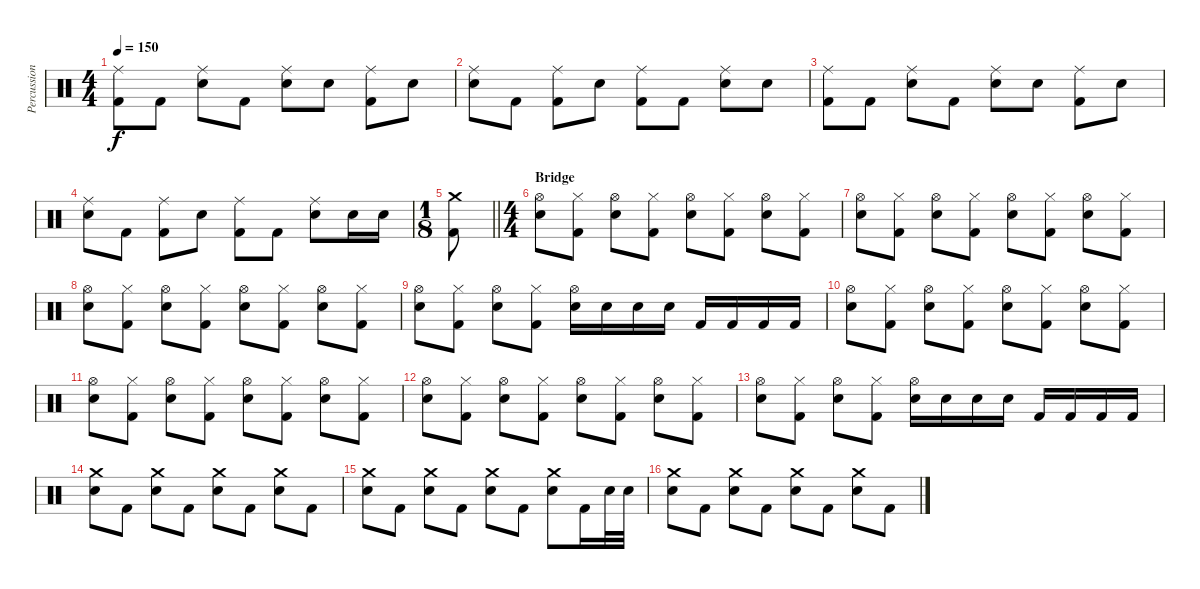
\track ("Percussion" "Percussion") {instrument percussion}
\staff {score}
\articulation defaults
\ts (4 4)
\tempo 150
\clef neutral
\ks c
("Ride (middle)" "Kick (hit) 2").8{dy f} "Kick (hit) 2".8 ("Ride (middle)" "Electric Snare (hit)").8 "Kick (hit) 2".8 ("Ride (middle)" "Electric Snare (hit)").8 "Electric Snare (hit)".8 ("Ride (middle)" "Kick (hit) 2").8 "Electric Snare (hit)".8 |
("Ride (middle)" "Electric Snare (hit)").8 "Kick (hit) 2".8 ("Ride (middle)" "Kick (hit) 2").8 "Electric Snare (hit)".8 ("Ride (middle)" "Kick (hit) 2").8 "Kick (hit) 2".8 ("Ride (middle)" "Electric Snare (hit)").8 "Electric Snare (hit)".8 |
("Ride (middle)" "Kick (hit) 2").8 "Kick (hit) 2".8 ("Ride (middle)" "Electric Snare (hit)").8 "Kick (hit) 2".8 ("Ride (middle)" "Electric Snare (hit)").8 "Electric Snare (hit)".8 ("Ride (middle)" "Kick (hit) 2").8 "Electric Snare (hit)".8 |
("Ride (middle)" "Electric Snare (hit)").8 "Kick (hit) 2".8 ("Ride (middle)" "Kick (hit) 2").8 "Electric Snare (hit)".8 ("Ride (middle)" "Kick (hit) 2").8 "Kick (hit) 2".8 ("Ride (middle)" "Electric Snare (hit)").8 "Electric Snare (hit)".16 "Electric Snare (hit)".16 |
\ts (1 8)
\barLineRight lightlight
("Crash medium (hit)" "Kick (hit) 2").8 |
\ts (4 4)
\section ("" "Bridge")
("Hi-Hat (open)" "Electric Snare (hit)").8 ("Hi-Hat (closed)" "Kick (hit) 2").8 ("Hi-Hat (open)" "Electric Snare (hit)").8 ("Hi-Hat (closed)" "Kick (hit) 2").8 ("Hi-Hat (open)" "Electric Snare (hit)").8 ("Hi-Hat (closed)" "Kick (hit) 2").8 ("Hi-Hat (open)" "Electric Snare (hit)").8 ("Hi-Hat (closed)" "Kick (hit) 2").8 |
("Hi-Hat (open)" "Electric Snare (hit)").8 ("Hi-Hat (closed)" "Kick (hit) 2").8 ("Hi-Hat (open)" "Electric Snare (hit)").8 ("Hi-Hat (closed)" "Kick (hit) 2").8 ("Hi-Hat (open)" "Electric Snare (hit)").8 ("Hi-Hat (closed)" "Kick (hit) 2").8 ("Hi-Hat (open)" "Electric Snare (hit)").8 ("Hi-Hat (closed)" "Kick (hit) 2").8 |
("Hi-Hat (open)" "Electric Snare (hit)").8 ("Hi-Hat (closed)" "Kick (hit) 2").8 ("Hi-Hat (open)" "Electric Snare (hit)").8 ("Hi-Hat (closed)" "Kick (hit) 2").8 ("Hi-Hat (open)" "Electric Snare (hit)").8 ("Hi-Hat (closed)" "Kick (hit) 2").8 ("Hi-Hat (open)" "Electric Snare (hit)").8 ("Hi-Hat (closed)" "Kick (hit) 2").8 |
("Hi-Hat (open)" "Electric Snare (hit)").8 ("Hi-Hat (closed)" "Kick (hit) 2").8 ("Hi-Hat (open)" "Electric Snare (hit)").8 ("Hi-Hat (closed)" "Kick (hit) 2").8 ("Hi-Hat (open)" "Electric Snare (hit)").16 "Electric Snare (hit)".16 "Electric Snare (hit)".16 "Electric Snare (hit)".16 "Kick (hit) 2".16 "Kick (hit) 2".16 "Kick (hit) 2".16 "Kick (hit) 2".16 |
("Hi-Hat (open)" "Electric Snare (hit)").8 ("Hi-Hat (closed)" "Kick (hit) 2").8 ("Hi-Hat (open)" "Electric Snare (hit)").8 ("Hi-Hat (closed)" "Kick (hit) 2").8 ("Hi-Hat (open)" "Electric Snare (hit)").8 ("Hi-Hat (closed)" "Kick (hit) 2").8 ("Hi-Hat (open)" "Electric Snare (hit)").8 ("Hi-Hat (closed)" "Kick (hit) 2").8 |
("Hi-Hat (open)" "Electric Snare (hit)").8 ("Hi-Hat (closed)" "Kick (hit) 2").8 ("Hi-Hat (open)" "Electric Snare (hit)").8 ("Hi-Hat (closed)" "Kick (hit) 2").8 ("Hi-Hat (open)" "Electric Snare (hit)").8 ("Hi-Hat (closed)" "Kick (hit) 2").8 ("Hi-Hat (open)" "Electric Snare (hit)").8 ("Hi-Hat (closed)" "Kick (hit) 2").8 |
("Hi-Hat (open)" "Electric Snare (hit)").8 ("Hi-Hat (closed)" "Kick (hit) 2").8 ("Hi-Hat (open)" "Electric Snare (hit)").8 ("Hi-Hat (closed)" "Kick (hit) 2").8 ("Hi-Hat (open)" "Electric Snare (hit)").8 ("Hi-Hat (closed)" "Kick (hit) 2").8 ("Hi-Hat (open)" "Electric Snare (hit)").8 ("Hi-Hat (closed)" "Kick (hit) 2").8 |
("Hi-Hat (open)" "Electric Snare (hit)").8 ("Hi-Hat (closed)" "Kick (hit) 2").8 ("Hi-Hat (open)" "Electric Snare (hit)").8 ("Hi-Hat (closed)" "Kick (hit) 2").8 ("Hi-Hat (open)" "Electric Snare (hit)").16 "Electric Snare (hit)".16 "Electric Snare (hit)".16 "Electric Snare (hit)".16 "Kick (hit) 2".16 "Kick (hit) 2".16 "Kick (hit) 2".16 "Kick (hit) 2".16 |
("Crash medium (hit)" "Electric Snare (hit)").8 "Kick (hit) 2".8 ("Crash medium (hit)" "Electric Snare (hit)").8 "Kick (hit) 2".8 ("Crash medium (hit)" "Electric Snare (hit)").8 "Kick (hit) 2".8 ("Crash medium (hit)" "Electric Snare (hit)").8 "Kick (hit) 2".8 |
("Crash medium (hit)" "Electric Snare (hit)").8 "Kick (hit) 2".8 ("Crash medium (hit)" "Electric Snare (hit)").8 "Kick (hit) 2".8 ("Crash medium (hit)" "Electric Snare (hit)").8 "Kick (hit) 2".8 ("Crash medium (hit)" "Electric Snare (hit)").8 "Kick (hit) 2".16 "Electric Snare (hit)".32 "Electric Snare (hit)".32 |
("Crash medium (hit)" "Electric Snare (hit)").8 "Kick (hit) 2".8 ("Crash medium (hit)" "Electric Snare (hit)").8 "Kick (hit) 2".8 ("Crash medium (hit)" "Electric Snare (hit)").8 "Kick (hit) 2".8 ("Crash medium (hit)" "Electric Snare (hit)").8 "Kick (hit) 2".8
